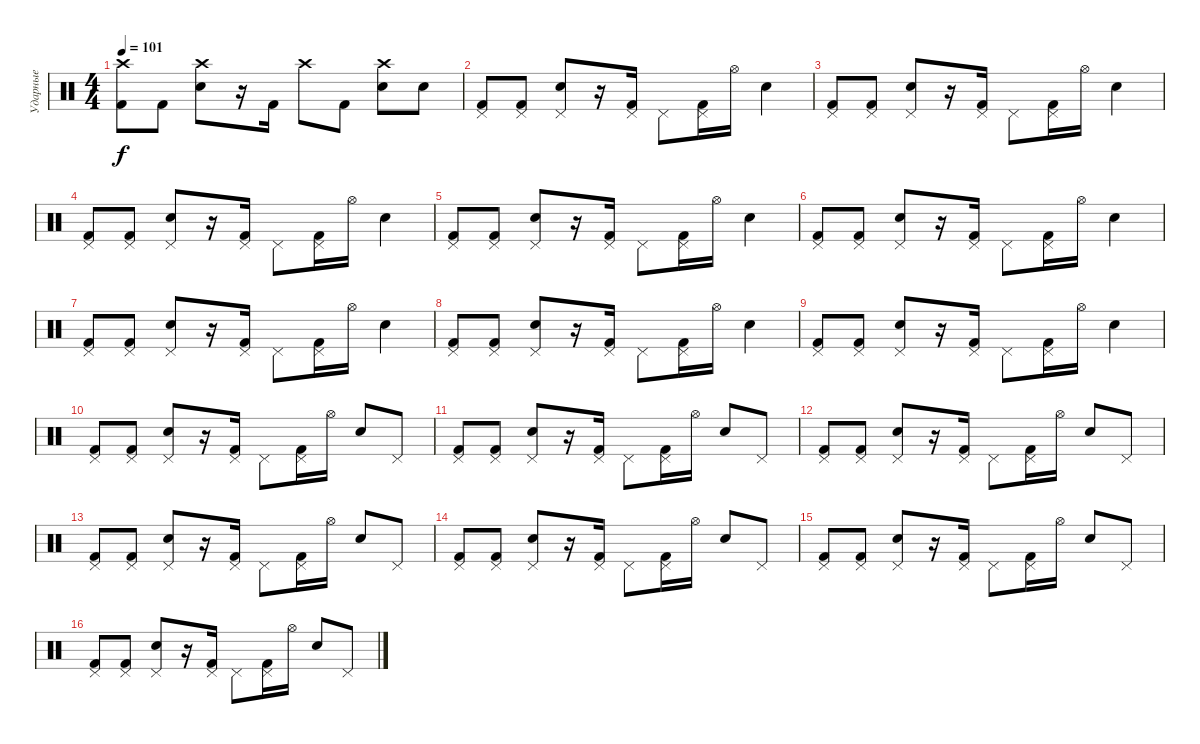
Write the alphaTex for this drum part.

\track ("Ударные" "Ударные") {instrument percussion}
\staff {score}
\articulation defaults
\ts (4 4)
\tempo 101
\clef neutral
\ks c
("Crash high (hit)" "Kick (hit) 2").8{dy f} "Kick (hit) 2".8 ("Crash high (hit)" "Snare (hit) 2").8 r.16 "Kick (hit) 2".16 "Crash high (hit)".8 "Kick (hit) 2".8 ("Crash high (hit)" "Snare (hit) 2").8 "Snare (hit) 2".8 |
("Pedal Hi-Hat (hit)" "Kick (hit) 2").8 ("Pedal Hi-Hat (hit)" "Kick (hit) 2").8 ("Pedal Hi-Hat (hit)" "Snare (hit) 2").8 r.16 ("Pedal Hi-Hat (hit)" "Kick (hit) 2").16 "Pedal Hi-Hat (hit)".8 ("Pedal Hi-Hat (hit)" "Kick (hit) 2").16 "Hi-Hat (open)".16 "Snare (hit) 2".4 |
("Pedal Hi-Hat (hit)" "Kick (hit) 2").8 ("Pedal Hi-Hat (hit)" "Kick (hit) 2").8 ("Pedal Hi-Hat (hit)" "Snare (hit) 2").8 r.16 ("Pedal Hi-Hat (hit)" "Kick (hit) 2").16 "Pedal Hi-Hat (hit)".8 ("Pedal Hi-Hat (hit)" "Kick (hit) 2").16 "Hi-Hat (open)".16 "Snare (hit) 2".4 |
("Pedal Hi-Hat (hit)" "Kick (hit) 2").8 ("Pedal Hi-Hat (hit)" "Kick (hit) 2").8 ("Pedal Hi-Hat (hit)" "Snare (hit) 2").8 r.16 ("Pedal Hi-Hat (hit)" "Kick (hit) 2").16 "Pedal Hi-Hat (hit)".8 ("Pedal Hi-Hat (hit)" "Kick (hit) 2").16 "Hi-Hat (open)".16 "Snare (hit) 2".4 |
("Pedal Hi-Hat (hit)" "Kick (hit) 2").8 ("Pedal Hi-Hat (hit)" "Kick (hit) 2").8 ("Pedal Hi-Hat (hit)" "Snare (hit) 2").8 r.16 ("Pedal Hi-Hat (hit)" "Kick (hit) 2").16 "Pedal Hi-Hat (hit)".8 ("Pedal Hi-Hat (hit)" "Kick (hit) 2").16 "Hi-Hat (open)".16 "Snare (hit) 2".4 |
("Pedal Hi-Hat (hit)" "Kick (hit) 2").8 ("Pedal Hi-Hat (hit)" "Kick (hit) 2").8 ("Pedal Hi-Hat (hit)" "Snare (hit) 2").8 r.16 ("Pedal Hi-Hat (hit)" "Kick (hit) 2").16 "Pedal Hi-Hat (hit)".8 ("Pedal Hi-Hat (hit)" "Kick (hit) 2").16 "Hi-Hat (open)".16 "Snare (hit) 2".4 |
("Pedal Hi-Hat (hit)" "Kick (hit) 2").8 ("Pedal Hi-Hat (hit)" "Kick (hit) 2").8 ("Pedal Hi-Hat (hit)" "Snare (hit) 2").8 r.16 ("Pedal Hi-Hat (hit)" "Kick (hit) 2").16 "Pedal Hi-Hat (hit)".8 ("Pedal Hi-Hat (hit)" "Kick (hit) 2").16 "Hi-Hat (open)".16 "Snare (hit) 2".4 |
("Pedal Hi-Hat (hit)" "Kick (hit) 2").8 ("Pedal Hi-Hat (hit)" "Kick (hit) 2").8 ("Pedal Hi-Hat (hit)" "Snare (hit) 2").8 r.16 ("Pedal Hi-Hat (hit)" "Kick (hit) 2").16 "Pedal Hi-Hat (hit)".8 ("Pedal Hi-Hat (hit)" "Kick (hit) 2").16 "Hi-Hat (open)".16 "Snare (hit) 2".4 |
("Pedal Hi-Hat (hit)" "Kick (hit) 2").8 ("Pedal Hi-Hat (hit)" "Kick (hit) 2").8 ("Pedal Hi-Hat (hit)" "Snare (hit) 2").8 r.16 ("Pedal Hi-Hat (hit)" "Kick (hit) 2").16 "Pedal Hi-Hat (hit)".8 ("Pedal Hi-Hat (hit)" "Kick (hit) 2").16 "Hi-Hat (open)".16 "Snare (hit) 2".4 |
("Pedal Hi-Hat (hit)" "Kick (hit) 2").8 ("Pedal Hi-Hat (hit)" "Kick (hit) 2").8 ("Pedal Hi-Hat (hit)" "Snare (hit) 2").8 r.16 ("Pedal Hi-Hat (hit)" "Kick (hit) 2").16 "Pedal Hi-Hat (hit)".8 ("Pedal Hi-Hat (hit)" "Kick (hit) 2").16 "Hi-Hat (open)".16 "Snare (hit) 2".8 "Pedal Hi-Hat (hit)".8 |
("Pedal Hi-Hat (hit)" "Kick (hit) 2").8 ("Pedal Hi-Hat (hit)" "Kick (hit) 2").8 ("Pedal Hi-Hat (hit)" "Snare (hit) 2").8 r.16 ("Pedal Hi-Hat (hit)" "Kick (hit) 2").16 "Pedal Hi-Hat (hit)".8 ("Pedal Hi-Hat (hit)" "Kick (hit) 2").16 "Hi-Hat (open)".16 "Snare (hit) 2".8 "Pedal Hi-Hat (hit)".8 |
("Pedal Hi-Hat (hit)" "Kick (hit) 2").8 ("Pedal Hi-Hat (hit)" "Kick (hit) 2").8 ("Pedal Hi-Hat (hit)" "Snare (hit) 2").8 r.16 ("Pedal Hi-Hat (hit)" "Kick (hit) 2").16 "Pedal Hi-Hat (hit)".8 ("Pedal Hi-Hat (hit)" "Kick (hit) 2").16 "Hi-Hat (open)".16 "Snare (hit) 2".8 "Pedal Hi-Hat (hit)".8 |
("Pedal Hi-Hat (hit)" "Kick (hit) 2").8 ("Pedal Hi-Hat (hit)" "Kick (hit) 2").8 ("Pedal Hi-Hat (hit)" "Snare (hit) 2").8 r.16 ("Pedal Hi-Hat (hit)" "Kick (hit) 2").16 "Pedal Hi-Hat (hit)".8 ("Pedal Hi-Hat (hit)" "Kick (hit) 2").16 "Hi-Hat (open)".16 "Snare (hit) 2".8 "Pedal Hi-Hat (hit)".8 |
("Pedal Hi-Hat (hit)" "Kick (hit) 2").8 ("Pedal Hi-Hat (hit)" "Kick (hit) 2").8 ("Pedal Hi-Hat (hit)" "Snare (hit) 2").8 r.16 ("Pedal Hi-Hat (hit)" "Kick (hit) 2").16 "Pedal Hi-Hat (hit)".8 ("Pedal Hi-Hat (hit)" "Kick (hit) 2").16 "Hi-Hat (open)".16 "Snare (hit) 2".8 "Pedal Hi-Hat (hit)".8 |
("Pedal Hi-Hat (hit)" "Kick (hit) 2").8 ("Pedal Hi-Hat (hit)" "Kick (hit) 2").8 ("Pedal Hi-Hat (hit)" "Snare (hit) 2").8 r.16 ("Pedal Hi-Hat (hit)" "Kick (hit) 2").16 "Pedal Hi-Hat (hit)".8 ("Pedal Hi-Hat (hit)" "Kick (hit) 2").16 "Hi-Hat (open)".16 "Snare (hit) 2".8 "Pedal Hi-Hat (hit)".8 |
("Pedal Hi-Hat (hit)" "Kick (hit) 2").8 ("Pedal Hi-Hat (hit)" "Kick (hit) 2").8 ("Pedal Hi-Hat (hit)" "Snare (hit) 2").8 r.16 ("Pedal Hi-Hat (hit)" "Kick (hit) 2").16 "Pedal Hi-Hat (hit)".8 ("Pedal Hi-Hat (hit)" "Kick (hit) 2").16 "Hi-Hat (open)".16 "Snare (hit) 2".8 "Pedal Hi-Hat (hit)".8
